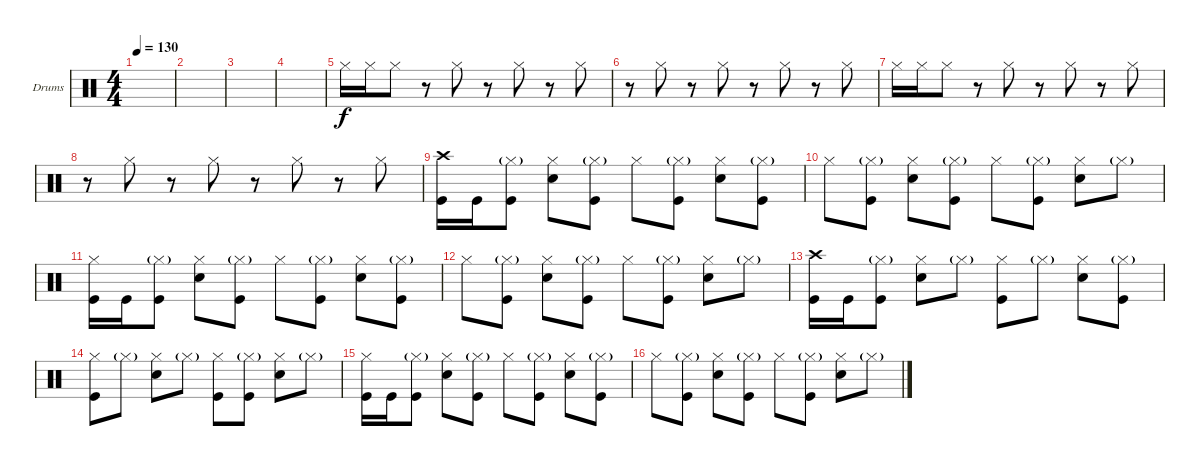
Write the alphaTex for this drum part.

\bracketExtendMode groupsimilarinstruments
\firstSystemTrackNameOrientation horizontal
\otherSystemsTrackNameOrientation horizontal
\track ("Drumkit" "Drums") {instrument percussion}
\staff {score}
\articulation defaults
\ts (4 4)
\tempo 130
\clef neutral
\ks c
|
|
|
|
"Hi-Hat (closed)".16 "Hi-Hat (closed)".16 "Hi-Hat (closed)".8 r.8 "Hi-Hat (closed)".8 r.8 "Hi-Hat (closed)".8 r.8 "Hi-Hat (closed)".8 |
r.8 "Hi-Hat (closed)".8 r.8 "Hi-Hat (closed)".8 r.8 "Hi-Hat (closed)".8 r.8 "Hi-Hat (closed)".8 |
"Hi-Hat (closed)".16 "Hi-Hat (closed)".16 "Hi-Hat (closed)".8 r.8 "Hi-Hat (closed)".8 r.8 "Hi-Hat (closed)".8 r.8 "Hi-Hat (closed)".8 |
r.8 "Hi-Hat (closed)".8 r.8 "Hi-Hat (closed)".8 r.8 "Hi-Hat (closed)".8 r.8 "Hi-Hat (closed)".8 |
("Crash high (hit)" "Kick (hit)").16 "Kick (hit)".16 ("Kick (hit)" "Hi-Hat (closed)"{g}).8 ("Snare (hit) 2" "Hi-Hat (closed)").8 ("Kick (hit)" "Hi-Hat (closed)"{g}).8 "Hi-Hat (closed)".8 ("Kick (hit)" "Hi-Hat (closed)"{g}).8 ("Snare (hit) 2" "Hi-Hat (closed)").8 ("Kick (hit)" "Hi-Hat (closed)"{g}).8 |
"Hi-Hat (closed)".8 ("Kick (hit)" "Hi-Hat (closed)"{g}).8 ("Snare (hit) 2" "Hi-Hat (closed)").8 ("Kick (hit)" "Hi-Hat (closed)"{g}).8 "Hi-Hat (closed)".8 ("Kick (hit)" "Hi-Hat (closed)"{g}).8 ("Snare (hit) 2" "Hi-Hat (closed)").8 "Hi-Hat (closed)"{g}.8 |
("Kick (hit)" "Hi-Hat (closed)").16 "Kick (hit)".16 ("Kick (hit)" "Hi-Hat (closed)"{g}).8 ("Snare (hit) 2" "Hi-Hat (closed)").8 ("Kick (hit)" "Hi-Hat (closed)"{g}).8 "Hi-Hat (closed)".8 ("Kick (hit)" "Hi-Hat (closed)"{g}).8 ("Snare (hit) 2" "Hi-Hat (closed)").8 ("Kick (hit)" "Hi-Hat (closed)"{g}).8 |
"Hi-Hat (closed)".8 ("Kick (hit)" "Hi-Hat (closed)"{g}).8 ("Snare (hit) 2" "Hi-Hat (closed)").8 ("Kick (hit)" "Hi-Hat (closed)"{g}).8 "Hi-Hat (closed)".8 ("Kick (hit)" "Hi-Hat (closed)"{g}).8 ("Snare (hit) 2" "Hi-Hat (closed)").8 "Hi-Hat (closed)"{g}.8 |
("Crash high (hit)" "Kick (hit)").16 "Kick (hit)".16 ("Kick (hit)" "Hi-Hat (closed)"{g}).8 ("Snare (hit) 2" "Hi-Hat (closed)").8 "Hi-Hat (closed)"{g}.8 ("Hi-Hat (closed)" "Kick (hit)").8 "Hi-Hat (closed)"{g}.8 ("Snare (hit) 2" "Hi-Hat (closed)").8 ("Hi-Hat (closed)"{g} "Kick (hit)").8 |
("Hi-Hat (closed)" "Kick (hit)").8 "Hi-Hat (closed)"{g}.8 ("Snare (hit) 2" "Hi-Hat (closed)").8 "Hi-Hat (closed)"{g}.8 ("Hi-Hat (closed)" "Kick (hit)").8 ("Kick (hit)" "Hi-Hat (closed)"{g}).8 ("Snare (hit) 2" "Hi-Hat (closed)").8 "Hi-Hat (closed)"{g}.8 |
("Kick (hit)" "Hi-Hat (closed)").16 "Kick (hit)".16 ("Kick (hit)" "Hi-Hat (closed)"{g}).8 ("Snare (hit) 2" "Hi-Hat (closed)").8 ("Kick (hit)" "Hi-Hat (closed)"{g}).8 "Hi-Hat (closed)".8 ("Kick (hit)" "Hi-Hat (closed)"{g}).8 ("Snare (hit) 2" "Hi-Hat (closed)").8 ("Kick (hit)" "Hi-Hat (closed)"{g}).8 |
"Hi-Hat (closed)".8 ("Kick (hit)" "Hi-Hat (closed)"{g}).8 ("Snare (hit) 2" "Hi-Hat (closed)").8 ("Kick (hit)" "Hi-Hat (closed)"{g}).8 "Hi-Hat (closed)".8 ("Kick (hit)" "Hi-Hat (closed)"{g}).8 ("Snare (hit) 2" "Hi-Hat (closed)").8 "Hi-Hat (closed)"{g}.8
